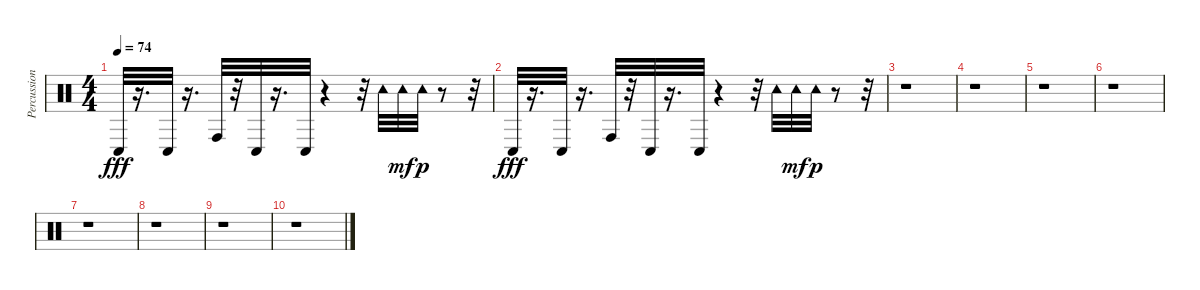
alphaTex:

\track ("Percussion" "Percussion") {instrument percussion}
\staff {score}
\articulation defaults
\ts (4 4)
\tempo 74
\clef neutral
\ks c "Conga low (hit)".32{dy fff}
r.16{d} "Conga low (hit)".32 r.16{d} "Conga high (hit)".32 r.32 "Conga low (hit)".32 r.16{d} "Conga low (hit)".32 r.4 r.32 "Tambourine (hit)".32 "Tambourine (hit)".32{dy mf} "Tambourine (hit)".32{dy p} r.8 r.32 |
"Conga low (hit)".32{dy fff} r.16{d} "Conga low (hit)".32 r.16{d} "Conga high (hit)".32 r.32 "Conga low (hit)".32 r.16{d} "Conga low (hit)".32 r.4 r.32 "Tambourine (hit)".32 "Tambourine (hit)".32{dy mf} "Tambourine (hit)".32{dy p} r.8 r.32 |
r.1 |
r.1 |
r.1 |
r.1 |
r.1 |
r.1 |
r.1 |
r.1
